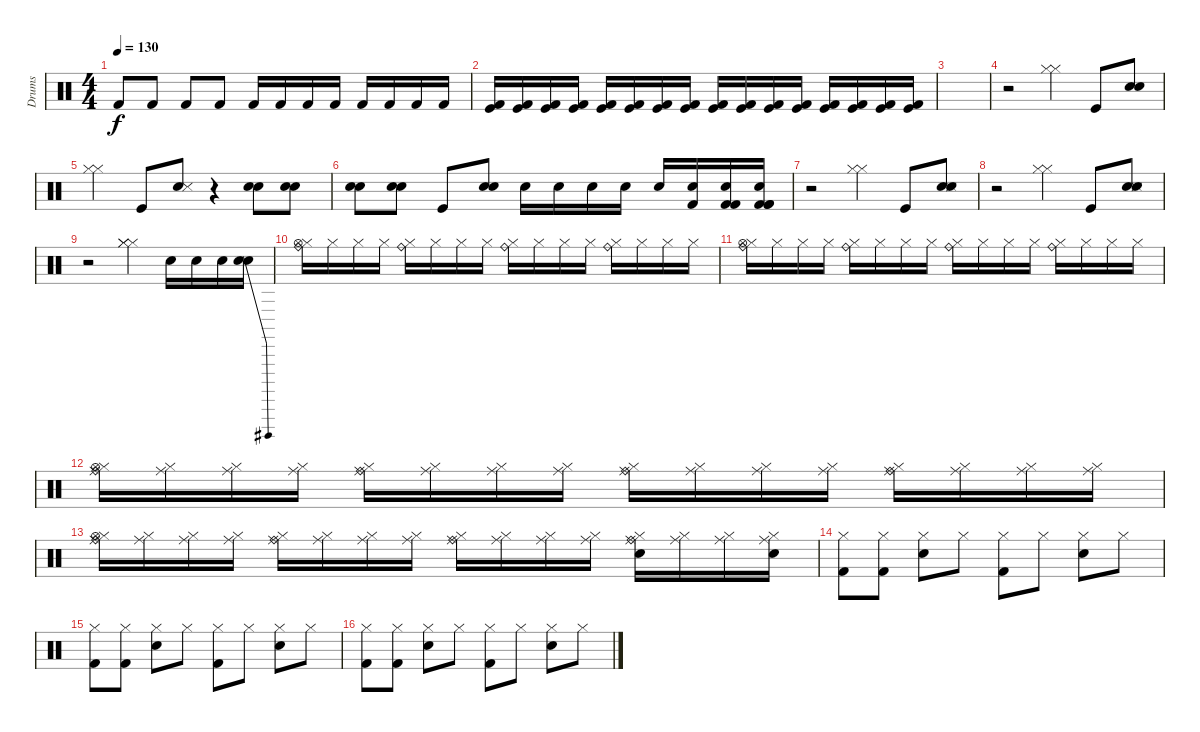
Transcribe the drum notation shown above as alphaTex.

\track ("Drums" "Drums") {instrument percussion}
\staff {score}
\articulation defaults
\ts (4 4)
\tempo 130
\clef neutral
\ks c "Kick (hit) 2".8{dy f} "Kick (hit) 2".8 "Kick (hit) 2".8 "Kick (hit) 2".8 "Kick (hit) 2".16 "Kick (hit) 2".16 "Kick (hit) 2".16 "Kick (hit) 2".16 "Kick (hit) 2".16 "Kick (hit) 2".16 "Kick (hit) 2".16 "Kick (hit) 2".16
|
("Kick (hit)" "Kick (hit) 2").16 ("Kick (hit)" "Kick (hit) 2").16 ("Kick (hit)" "Kick (hit) 2").16 ("Kick (hit)" "Kick (hit) 2").16 ("Kick (hit)" "Kick (hit) 2").16 ("Kick (hit)" "Kick (hit) 2").16 ("Kick (hit)" "Kick (hit) 2").16 ("Kick (hit)" "Kick (hit) 2").16 ("Kick (hit)" "Kick (hit) 2").16 ("Kick (hit)" "Kick (hit) 2").16 ("Kick (hit)" "Kick (hit) 2").16 ("Kick (hit)" "Kick (hit) 2").16 ("Kick (hit)" "Kick (hit) 2").16 ("Kick (hit)" "Kick (hit) 2").16 ("Kick (hit)" "Kick (hit) 2").16 ("Kick (hit)" "Kick (hit) 2").16 |
|
r.2 ("Hi-Hat (closed)" "Hi-Hat (closed)").4 "Kick (hit)".8 ("Hand Clap (hit)" "Snare (hit) 2").8 |
("Hi-Hat (closed)" "Hi-Hat (closed)").4 "Kick (hit)".8 ("Hand Clap (hit)" "Snare (side stick) 3").8 r.4 ("Snare (hit) 2" "Snare (hit) 2").8 ("Snare (hit) 2" "Snare (hit) 2").8 |
("Snare (hit) 2" "Snare (hit) 2").8 ("Snare (hit) 2" "Snare (hit) 2").8 "Kick (hit)".8 ("Hand Clap (hit)" "Snare (hit) 2").8 "Electric Snare (hit)".16 "Electric Snare (hit)".16 "Electric Snare (hit)".16 "Electric Snare (hit)".16 "Electric Snare (hit)".16 ("Kick (hit) 2" "Electric Snare (hit)").16 ("Kick (hit) 2" "Kick (hit) 2" "Electric Snare (hit)").16 ("Kick (hit) 2" "Kick (hit) 2" "Kick (hit) 2" "Electric Snare (hit)").16 |
r.2 ("Hi-Hat (closed)" "Hi-Hat (closed)").4 "Kick (hit)".8 ("Hand Clap (hit)" "Snare (side stick) 3" "Snare (hit) 2").8 |
r.2 ("Hi-Hat (closed)" "Hi-Hat (closed)").4 "Kick (hit)".8 ("Hand Clap (hit)" "Snare (side stick) 3" "Snare (hit) 2").8 |
r.2 ("Hi-Hat (closed)" "Hi-Hat (closed)" "Hi-Hat (closed)").4 "Snare (hit) 2".16 "Snare (hit) 2".16 "Snare (hit) 2".16 ("Snare (hit) 2"{be (bend 0 0 60 4)} "Electric Snare (hit)").16 |
("Hi-Hat (closed)" "Ride (bell)" "Hi-Hat (open)").16 "Hi-Hat (closed)".16 "Hi-Hat (closed)".16 "Hi-Hat (closed)".16 ("Hi-Hat (closed)" "Ride (bell)").16 "Hi-Hat (closed)".16 "Hi-Hat (closed)".16 "Hi-Hat (closed)".16 ("Hi-Hat (closed)" "Ride (bell)").16 "Hi-Hat (closed)".16 "Hi-Hat (closed)".16 "Hi-Hat (closed)".16 ("Hi-Hat (closed)" "Ride (bell)").16 "Hi-Hat (closed)".16 "Hi-Hat (closed)".16 "Hi-Hat (closed)".16 |
("Hi-Hat (closed)" "Ride (bell)" "Hi-Hat (open)").16 "Hi-Hat (closed)".16 "Hi-Hat (closed)".16 "Hi-Hat (closed)".16 ("Hi-Hat (closed)" "Ride (bell)").16 "Hi-Hat (closed)".16 "Hi-Hat (closed)".16 "Hi-Hat (closed)".16 ("Hi-Hat (closed)" "Ride (bell)").16 "Hi-Hat (closed)".16 "Hi-Hat (closed)".16 "Hi-Hat (closed)".16 ("Hi-Hat (closed)" "Ride (bell)").16 "Hi-Hat (closed)".16 "Hi-Hat (closed)".16 "Hi-Hat (closed)".16 |
("Hi-Hat (closed)" "Ride (middle)" "Ride (bell)" "Hi-Hat (open)").16 ("Hi-Hat (closed)" "Ride (middle)").16 ("Hi-Hat (closed)" "Ride (middle)").16 ("Hi-Hat (closed)" "Ride (middle)").16 ("Hi-Hat (closed)" "Ride (middle)" "Ride (bell)").16 ("Hi-Hat (closed)" "Ride (middle)").16 ("Hi-Hat (closed)" "Ride (middle)").16 ("Hi-Hat (closed)" "Ride (middle)").16 ("Hi-Hat (closed)" "Ride (middle)" "Ride (bell)").16 ("Hi-Hat (closed)" "Ride (middle)").16 ("Hi-Hat (closed)" "Ride (middle)").16 ("Hi-Hat (closed)" "Ride (middle)").16 ("Hi-Hat (closed)" "Ride (middle)" "Ride (bell)").16 ("Hi-Hat (closed)" "Ride (middle)").16 ("Hi-Hat (closed)" "Ride (middle)").16 ("Hi-Hat (closed)" "Ride (middle)").16 |
("Hi-Hat (closed)" "Ride (middle)" "Ride (bell)" "Hi-Hat (open)").16 ("Hi-Hat (closed)" "Ride (middle)").16 ("Hi-Hat (closed)" "Ride (middle)").16 ("Hi-Hat (closed)" "Ride (middle)").16 ("Hi-Hat (closed)" "Ride (middle)" "Ride (bell)").16 ("Hi-Hat (closed)" "Ride (middle)").16 ("Hi-Hat (closed)" "Ride (middle)").16 ("Hi-Hat (closed)" "Ride (middle)").16 ("Hi-Hat (closed)" "Ride (middle)" "Ride (bell)").16 ("Hi-Hat (closed)" "Ride (middle)").16 ("Hi-Hat (closed)" "Ride (middle)").16 ("Hi-Hat (closed)" "Ride (middle)").16 ("Hi-Hat (closed)" "Ride (middle)" "Ride (bell)" "Snare (hit) 2").16 ("Hi-Hat (closed)" "Ride (middle)").16 ("Hi-Hat (closed)" "Ride (middle)").16 ("Hi-Hat (closed)" "Ride (middle)" "Snare (hit) 2").16 |
("Hi-Hat (closed)" "Kick (hit) 2").8 ("Hi-Hat (closed)" "Kick (hit) 2").8 ("Hi-Hat (closed)" "Snare (hit) 2").8 "Hi-Hat (closed)".8 ("Hi-Hat (closed)" "Kick (hit) 2").8 "Hi-Hat (closed)".8 ("Hi-Hat (closed)" "Snare (hit) 2").8 "Hi-Hat (closed)".8 |
("Hi-Hat (closed)" "Kick (hit) 2").8 ("Hi-Hat (closed)" "Kick (hit) 2").8 ("Hi-Hat (closed)" "Snare (hit) 2").8 "Hi-Hat (closed)".8 ("Hi-Hat (closed)" "Kick (hit) 2").8 "Hi-Hat (closed)".8 ("Hi-Hat (closed)" "Snare (hit) 2").8 "Hi-Hat (closed)".8 |
("Hi-Hat (closed)" "Kick (hit) 2").8 ("Hi-Hat (closed)" "Kick (hit) 2").8 ("Hi-Hat (closed)" "Snare (hit) 2").8 "Hi-Hat (closed)".8 ("Hi-Hat (closed)" "Kick (hit) 2").8 "Hi-Hat (closed)".8 ("Hi-Hat (closed)" "Snare (hit) 2").8 "Hi-Hat (closed)".8
